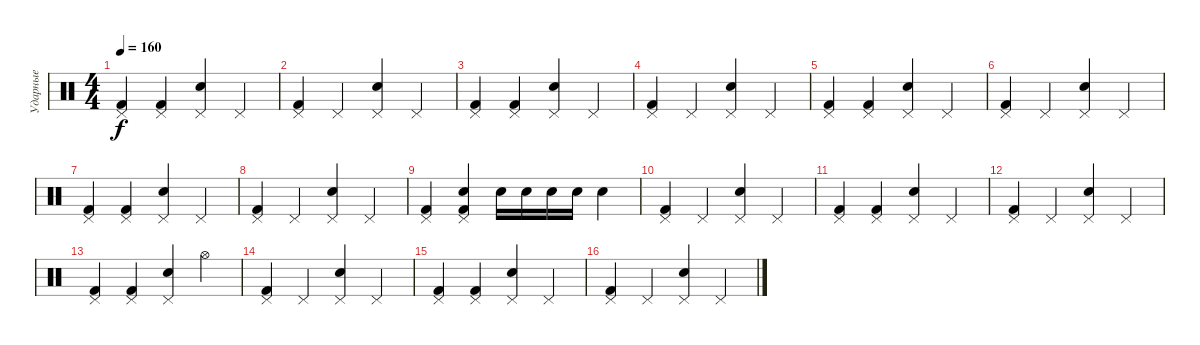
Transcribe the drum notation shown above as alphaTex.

\track ("Ударные" "Ударные") {instrument percussion}
\staff {score}
\articulation defaults
\ts (4 4)
\tempo 160
\clef neutral
\ks c
("Pedal Hi-Hat (hit)" "Kick (hit) 2").4{dy f} ("Pedal Hi-Hat (hit)" "Kick (hit) 2").4 ("Snare (hit) 2" "Pedal Hi-Hat (hit)").4 "Pedal Hi-Hat (hit)".4 |
("Pedal Hi-Hat (hit)" "Kick (hit) 2").4 "Pedal Hi-Hat (hit)".4 ("Snare (hit) 2" "Pedal Hi-Hat (hit)").4 "Pedal Hi-Hat (hit)".4 |
("Pedal Hi-Hat (hit)" "Kick (hit) 2").4 ("Pedal Hi-Hat (hit)" "Kick (hit) 2").4 ("Snare (hit) 2" "Pedal Hi-Hat (hit)").4 "Pedal Hi-Hat (hit)".4 |
("Pedal Hi-Hat (hit)" "Kick (hit) 2").4 "Pedal Hi-Hat (hit)".4 ("Snare (hit) 2" "Pedal Hi-Hat (hit)").4 "Pedal Hi-Hat (hit)".4 |
("Pedal Hi-Hat (hit)" "Kick (hit) 2").4 ("Pedal Hi-Hat (hit)" "Kick (hit) 2").4 ("Snare (hit) 2" "Pedal Hi-Hat (hit)").4 "Pedal Hi-Hat (hit)".4 |
("Pedal Hi-Hat (hit)" "Kick (hit) 2").4 "Pedal Hi-Hat (hit)".4 ("Snare (hit) 2" "Pedal Hi-Hat (hit)").4 "Pedal Hi-Hat (hit)".4 |
("Pedal Hi-Hat (hit)" "Kick (hit) 2").4 ("Pedal Hi-Hat (hit)" "Kick (hit) 2").4 ("Snare (hit) 2" "Pedal Hi-Hat (hit)").4 "Pedal Hi-Hat (hit)".4 |
("Pedal Hi-Hat (hit)" "Kick (hit) 2").4 "Pedal Hi-Hat (hit)".4 ("Snare (hit) 2" "Pedal Hi-Hat (hit)").4 "Pedal Hi-Hat (hit)".4 |
("Pedal Hi-Hat (hit)" "Kick (hit) 2").4 ("Snare (hit) 2" "Pedal Hi-Hat (hit)" "Kick (hit) 2").4 "Snare (hit) 2".16 "Snare (hit) 2".16 "Snare (hit) 2".16 "Snare (hit) 2".16 "Snare (hit) 2".4 |
("Pedal Hi-Hat (hit)" "Kick (hit) 2").4 "Pedal Hi-Hat (hit)".4 ("Snare (hit) 2" "Pedal Hi-Hat (hit)").4 "Pedal Hi-Hat (hit)".4 |
("Pedal Hi-Hat (hit)" "Kick (hit) 2").4 ("Pedal Hi-Hat (hit)" "Kick (hit) 2").4 ("Snare (hit) 2" "Pedal Hi-Hat (hit)").4 "Pedal Hi-Hat (hit)".4 |
("Pedal Hi-Hat (hit)" "Kick (hit) 2").4 "Pedal Hi-Hat (hit)".4 ("Snare (hit) 2" "Pedal Hi-Hat (hit)").4 "Pedal Hi-Hat (hit)".4 |
("Pedal Hi-Hat (hit)" "Kick (hit) 2").4 ("Pedal Hi-Hat (hit)" "Kick (hit) 2").4 ("Snare (hit) 2" "Pedal Hi-Hat (hit)").4 "Hi-Hat (open)".4 |
("Pedal Hi-Hat (hit)" "Kick (hit) 2").4 "Pedal Hi-Hat (hit)".4 ("Snare (hit) 2" "Pedal Hi-Hat (hit)").4 "Pedal Hi-Hat (hit)".4 |
("Pedal Hi-Hat (hit)" "Kick (hit) 2").4 ("Pedal Hi-Hat (hit)" "Kick (hit) 2").4 ("Snare (hit) 2" "Pedal Hi-Hat (hit)").4 "Pedal Hi-Hat (hit)".4 |
("Pedal Hi-Hat (hit)" "Kick (hit) 2").4 "Pedal Hi-Hat (hit)".4 ("Snare (hit) 2" "Pedal Hi-Hat (hit)").4 "Pedal Hi-Hat (hit)".4
